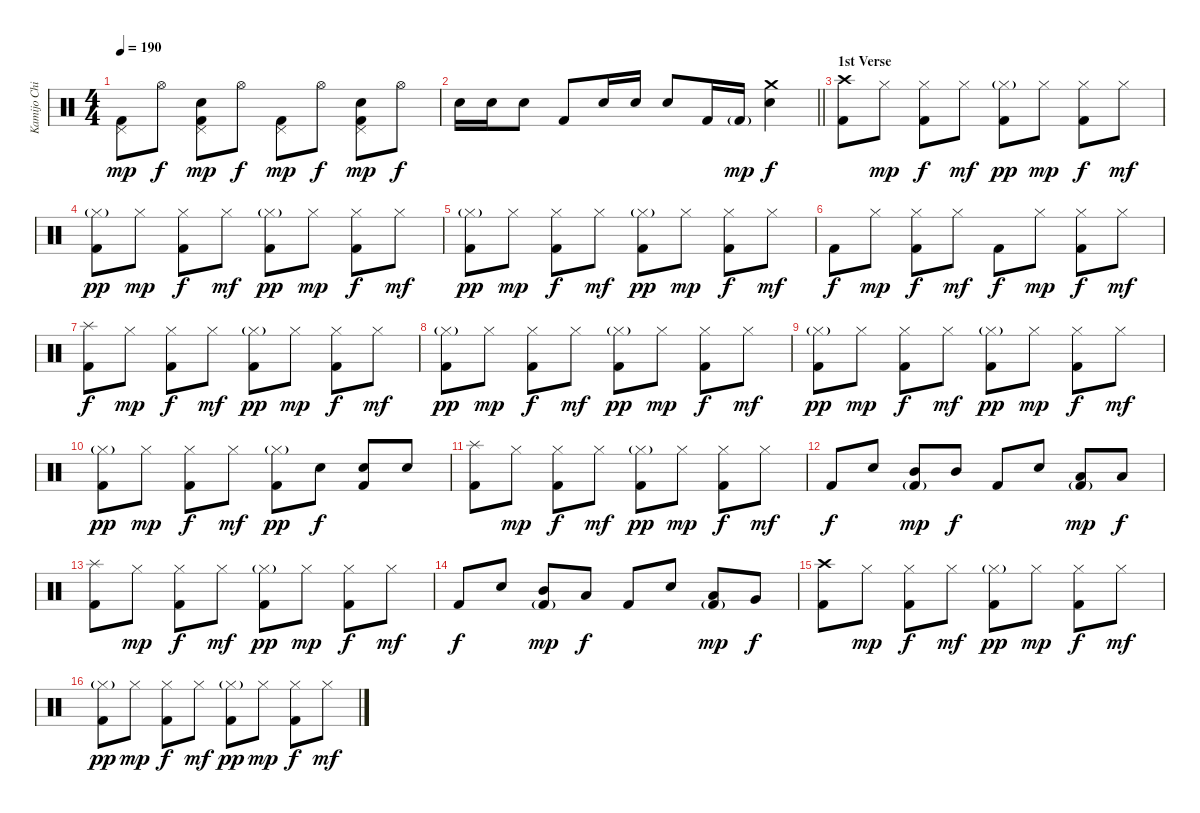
\track ("Kamijo Chihiro" "Kamijo Chi") {instrument percussion}
\staff {score}
\articulation defaults
\ts (4 4)
\tempo 190
\clef neutral
\ks c
("Pedal Hi-Hat (hit)" "Kick (hit) 2").8{dy mp} "Hi-Hat (open)".8{dy f} ("Pedal Hi-Hat (hit)" "Snare (hit) 2" "Kick (hit) 2").8{dy mp} "Hi-Hat (open)".8{dy f} ("Pedal Hi-Hat (hit)" "Kick (hit) 2").8{dy mp} "Hi-Hat (open)".8{dy f} ("Pedal Hi-Hat (hit)" "Snare (hit) 2" "Kick (hit) 2").8{dy mp} "Hi-Hat (open)".8{dy f} |
\barLineRight lightlight "Snare (hit) 2".16 "Snare (hit) 2".16 "Snare (hit) 2".8 "Kick (hit) 2".8 "Snare (hit) 2".16 "Snare (hit) 2".16 "Snare (hit) 2".8 "Kick (hit) 2".16 "Kick (hit) 2"{g}.16{dy mp}
("Crash medium (hit)" "Snare (hit) 2").4{dy f} |
\section ("" "1st Verse")
("Crash high (hit)" "Kick (hit) 2").8 "Hi-Hat (closed)".8{dy mp} ("Hi-Hat (closed)" "Kick (hit) 2").8{dy f} "Hi-Hat (closed)".8{dy mf} ("Hi-Hat (closed)"{g} "Kick (hit) 2").8{dy pp} "Hi-Hat (closed)".8{dy mp} ("Hi-Hat (closed)" "Kick (hit) 2").8{dy f} "Hi-Hat (closed)".8{dy mf} |
("Hi-Hat (closed)"{g} "Kick (hit) 2").8{dy pp} "Hi-Hat (closed)".8{dy mp} ("Hi-Hat (closed)" "Kick (hit) 2").8{dy f} "Hi-Hat (closed)".8{dy mf} ("Hi-Hat (closed)"{g} "Kick (hit) 2").8{dy pp} "Hi-Hat (closed)".8{dy mp} ("Hi-Hat (closed)" "Kick (hit) 2").8{dy f} "Hi-Hat (closed)".8{dy mf} |
("Hi-Hat (closed)"{g} "Kick (hit) 2").8{dy pp} "Hi-Hat (closed)".8{dy mp} ("Hi-Hat (closed)" "Kick (hit) 2").8{dy f} "Hi-Hat (closed)".8{dy mf} ("Hi-Hat (closed)"{g} "Kick (hit) 2").8{dy pp} "Hi-Hat (closed)".8{dy mp} ("Hi-Hat (closed)" "Kick (hit) 2").8{dy f} "Hi-Hat (closed)".8{dy mf} |
"Kick (hit) 2".8{dy f} "Hi-Hat (closed)".8{dy mp} ("Hi-Hat (closed)" "Kick (hit) 2").8{dy f} "Hi-Hat (closed)".8{dy mf} "Kick (hit) 2".8{dy f} "Hi-Hat (closed)".8{dy mp} ("Hi-Hat (closed)" "Kick (hit) 2").8{dy f} "Hi-Hat (closed)".8{dy mf} |
("Splash (hit)" "Kick (hit) 2").8{dy f} "Hi-Hat (closed)".8{dy mp} ("Hi-Hat (closed)" "Kick (hit) 2").8{dy f} "Hi-Hat (closed)".8{dy mf} ("Hi-Hat (closed)"{g} "Kick (hit) 2").8{dy pp} "Hi-Hat (closed)".8{dy mp} ("Hi-Hat (closed)" "Kick (hit) 2").8{dy f} "Hi-Hat (closed)".8{dy mf} |
("Hi-Hat (closed)"{g} "Kick (hit) 2").8{dy pp} "Hi-Hat (closed)".8{dy mp} ("Hi-Hat (closed)" "Kick (hit) 2").8{dy f} "Hi-Hat (closed)".8{dy mf} ("Hi-Hat (closed)"{g} "Kick (hit) 2").8{dy pp} "Hi-Hat (closed)".8{dy mp} ("Hi-Hat (closed)" "Kick (hit) 2").8{dy f} "Hi-Hat (closed)".8{dy mf} |
("Hi-Hat (closed)"{g} "Kick (hit) 2").8{dy pp} "Hi-Hat (closed)".8{dy mp} ("Hi-Hat (closed)" "Kick (hit) 2").8{dy f} "Hi-Hat (closed)".8{dy mf} ("Hi-Hat (closed)"{g} "Kick (hit) 2").8{dy pp} "Hi-Hat (closed)".8{dy mp} ("Hi-Hat (closed)" "Kick (hit) 2").8{dy f} "Hi-Hat (closed)".8{dy mf} |
("Hi-Hat (closed)"{g} "Kick (hit) 2").8{dy pp} "Hi-Hat (closed)".8{dy mp} ("Hi-Hat (closed)" "Kick (hit) 2").8{dy f} "Hi-Hat (closed)".8{dy mf} ("Hi-Hat (closed)"{g} "Kick (hit) 2").8{dy pp} "Snare (hit) 2".8{dy f} ("Snare (hit) 2" "Kick (hit) 2").8 "Snare (hit) 2".8 |
("Splash (hit)" "Kick (hit) 2").8 "Hi-Hat (closed)".8{dy mp} ("Hi-Hat (closed)" "Kick (hit) 2").8{dy f} "Hi-Hat (closed)".8{dy mf} ("Hi-Hat (closed)"{g} "Kick (hit) 2").8{dy pp} "Hi-Hat (closed)".8{dy mp} ("Hi-Hat (closed)" "Kick (hit) 2").8{dy f} "Hi-Hat (closed)".8{dy mf} |
"Kick (hit) 2".8{dy f} "Snare (hit) 2".8 ("Mid Tom (hit)" "Kick (hit) 2"{g}).8{dy mp} "Mid Tom (hit)".8{dy f} "Kick (hit) 2".8 "Snare (hit) 2".8 ("Low Tom (hit)" "Kick (hit) 2"{g}).8{dy mp} "Low Tom (hit)".8{dy f} |
("Splash (hit)" "Kick (hit) 2").8 "Hi-Hat (closed)".8{dy mp} ("Hi-Hat (closed)" "Kick (hit) 2").8{dy f} "Hi-Hat (closed)".8{dy mf} ("Hi-Hat (closed)"{g} "Kick (hit) 2").8{dy pp} "Hi-Hat (closed)".8{dy mp} ("Hi-Hat (closed)" "Kick (hit) 2").8{dy f} "Hi-Hat (closed)".8{dy mf} |
"Kick (hit) 2".8{dy f} "Snare (hit) 2".8 ("Mid Tom (hit)" "Kick (hit) 2"{g}).8{dy mp} "Low Tom (hit)".8{dy f} "Kick (hit) 2".8 "Snare (hit) 2".8 ("Low Tom (hit)" "Kick (hit) 2"{g}).8{dy mp} "Very Low Tom (hit)".8{dy f} |
("Crash high (hit)" "Kick (hit) 2").8 "Hi-Hat (closed)".8{dy mp} ("Hi-Hat (closed)" "Kick (hit) 2").8{dy f} "Hi-Hat (closed)".8{dy mf} ("Hi-Hat (closed)"{g} "Kick (hit) 2").8{dy pp} "Hi-Hat (closed)".8{dy mp} ("Hi-Hat (closed)" "Kick (hit) 2").8{dy f} "Hi-Hat (closed)".8{dy mf} |
("Hi-Hat (closed)"{g} "Kick (hit) 2").8{dy pp} "Hi-Hat (closed)".8{dy mp} ("Hi-Hat (closed)" "Kick (hit) 2").8{dy f} "Hi-Hat (closed)".8{dy mf} ("Hi-Hat (closed)"{g} "Kick (hit) 2").8{dy pp} "Hi-Hat (closed)".8{dy mp} ("Hi-Hat (closed)" "Kick (hit) 2").8{dy f} "Hi-Hat (closed)".8{dy mf}
